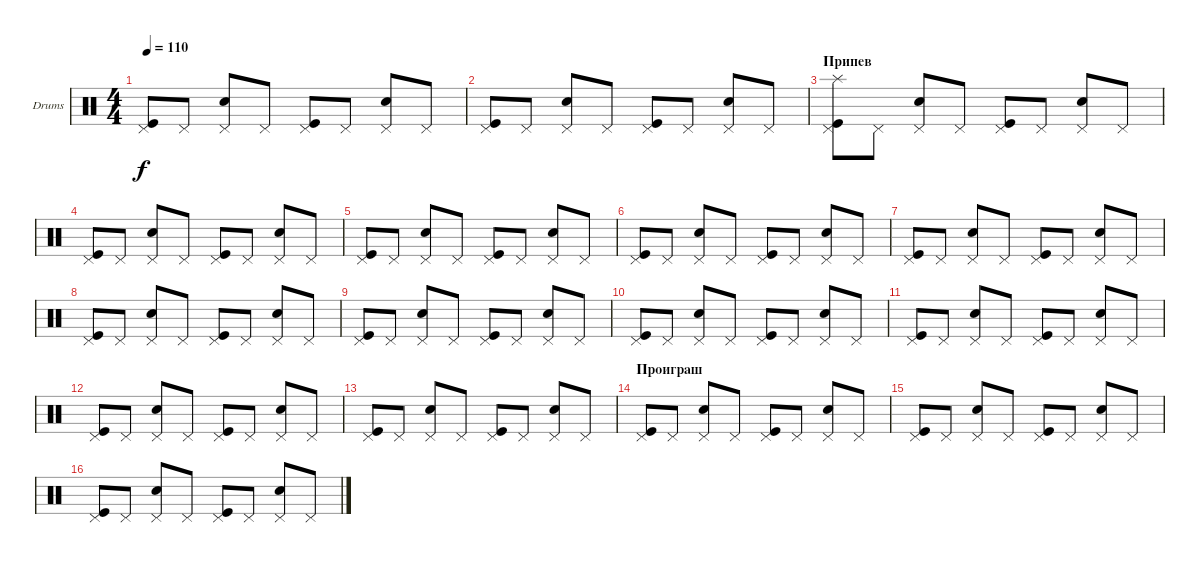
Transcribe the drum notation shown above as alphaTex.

\defaultSystemsLayout 4
\bracketExtendMode groupsimilarinstruments
\firstSystemTrackNameOrientation horizontal
\otherSystemsTrackNameOrientation horizontal
\track ("Drumkit" "Drums") {instrument percussion}
\staff {score}
\articulation defaults
\ts (4 4)
\tempo 110
\clef neutral
\ks c
("Pedal Hi-Hat (hit)" "Kick (hit)").8{dy f} "Pedal Hi-Hat (hit)".8 ("Snare (hit) 2" "Pedal Hi-Hat (hit)").8 "Pedal Hi-Hat (hit)".8 ("Pedal Hi-Hat (hit)" "Kick (hit)").8 "Pedal Hi-Hat (hit)".8 ("Snare (hit) 2" "Pedal Hi-Hat (hit)").8 "Pedal Hi-Hat (hit)".8 |
("Pedal Hi-Hat (hit)" "Kick (hit)").8 "Pedal Hi-Hat (hit)".8 ("Snare (hit) 2" "Pedal Hi-Hat (hit)").8 "Pedal Hi-Hat (hit)".8 ("Pedal Hi-Hat (hit)" "Kick (hit)").8 "Pedal Hi-Hat (hit)".8 ("Snare (hit) 2" "Pedal Hi-Hat (hit)").8 "Pedal Hi-Hat (hit)".8 |
\section ("" "Припев")
("Pedal Hi-Hat (hit)" "Kick (hit)" "Splash (hit)").8 "Pedal Hi-Hat (hit)".8 ("Snare (hit) 2" "Pedal Hi-Hat (hit)").8 "Pedal Hi-Hat (hit)".8 ("Pedal Hi-Hat (hit)" "Kick (hit)").8 "Pedal Hi-Hat (hit)".8 ("Snare (hit) 2" "Pedal Hi-Hat (hit)").8 "Pedal Hi-Hat (hit)".8 |
("Pedal Hi-Hat (hit)" "Kick (hit)").8 "Pedal Hi-Hat (hit)".8 ("Snare (hit) 2" "Pedal Hi-Hat (hit)").8 "Pedal Hi-Hat (hit)".8 ("Pedal Hi-Hat (hit)" "Kick (hit)").8 "Pedal Hi-Hat (hit)".8 ("Snare (hit) 2" "Pedal Hi-Hat (hit)").8 "Pedal Hi-Hat (hit)".8 |
("Pedal Hi-Hat (hit)" "Kick (hit)").8 "Pedal Hi-Hat (hit)".8 ("Snare (hit) 2" "Pedal Hi-Hat (hit)").8 "Pedal Hi-Hat (hit)".8 ("Pedal Hi-Hat (hit)" "Kick (hit)").8 "Pedal Hi-Hat (hit)".8 ("Snare (hit) 2" "Pedal Hi-Hat (hit)").8 "Pedal Hi-Hat (hit)".8 |
("Pedal Hi-Hat (hit)" "Kick (hit)").8 "Pedal Hi-Hat (hit)".8 ("Snare (hit) 2" "Pedal Hi-Hat (hit)").8 "Pedal Hi-Hat (hit)".8 ("Pedal Hi-Hat (hit)" "Kick (hit)").8 "Pedal Hi-Hat (hit)".8 ("Snare (hit) 2" "Pedal Hi-Hat (hit)").8 "Pedal Hi-Hat (hit)".8 |
("Pedal Hi-Hat (hit)" "Kick (hit)").8 "Pedal Hi-Hat (hit)".8 ("Snare (hit) 2" "Pedal Hi-Hat (hit)").8 "Pedal Hi-Hat (hit)".8 ("Pedal Hi-Hat (hit)" "Kick (hit)").8 "Pedal Hi-Hat (hit)".8 ("Snare (hit) 2" "Pedal Hi-Hat (hit)").8 "Pedal Hi-Hat (hit)".8 |
("Pedal Hi-Hat (hit)" "Kick (hit)").8 "Pedal Hi-Hat (hit)".8 ("Snare (hit) 2" "Pedal Hi-Hat (hit)").8 "Pedal Hi-Hat (hit)".8 ("Pedal Hi-Hat (hit)" "Kick (hit)").8 "Pedal Hi-Hat (hit)".8 ("Snare (hit) 2" "Pedal Hi-Hat (hit)").8 "Pedal Hi-Hat (hit)".8 |
("Pedal Hi-Hat (hit)" "Kick (hit)").8 "Pedal Hi-Hat (hit)".8 ("Snare (hit) 2" "Pedal Hi-Hat (hit)").8 "Pedal Hi-Hat (hit)".8 ("Pedal Hi-Hat (hit)" "Kick (hit)").8 "Pedal Hi-Hat (hit)".8 ("Snare (hit) 2" "Pedal Hi-Hat (hit)").8 "Pedal Hi-Hat (hit)".8 |
("Pedal Hi-Hat (hit)" "Kick (hit)").8 "Pedal Hi-Hat (hit)".8 ("Snare (hit) 2" "Pedal Hi-Hat (hit)").8 "Pedal Hi-Hat (hit)".8 ("Pedal Hi-Hat (hit)" "Kick (hit)").8 "Pedal Hi-Hat (hit)".8 ("Snare (hit) 2" "Pedal Hi-Hat (hit)").8 "Pedal Hi-Hat (hit)".8 |
("Pedal Hi-Hat (hit)" "Kick (hit)").8 "Pedal Hi-Hat (hit)".8 ("Snare (hit) 2" "Pedal Hi-Hat (hit)").8 "Pedal Hi-Hat (hit)".8 ("Pedal Hi-Hat (hit)" "Kick (hit)").8 "Pedal Hi-Hat (hit)".8 ("Snare (hit) 2" "Pedal Hi-Hat (hit)").8 "Pedal Hi-Hat (hit)".8 |
("Pedal Hi-Hat (hit)" "Kick (hit)").8 "Pedal Hi-Hat (hit)".8 ("Snare (hit) 2" "Pedal Hi-Hat (hit)").8 "Pedal Hi-Hat (hit)".8 ("Pedal Hi-Hat (hit)" "Kick (hit)").8 "Pedal Hi-Hat (hit)".8 ("Snare (hit) 2" "Pedal Hi-Hat (hit)").8 "Pedal Hi-Hat (hit)".8 |
("Pedal Hi-Hat (hit)" "Kick (hit)").8 "Pedal Hi-Hat (hit)".8 ("Snare (hit) 2" "Pedal Hi-Hat (hit)").8 "Pedal Hi-Hat (hit)".8 ("Pedal Hi-Hat (hit)" "Kick (hit)").8 "Pedal Hi-Hat (hit)".8 ("Snare (hit) 2" "Pedal Hi-Hat (hit)").8 "Pedal Hi-Hat (hit)".8 |
\section ("" "Проиграш")
("Pedal Hi-Hat (hit)" "Kick (hit)").8 "Pedal Hi-Hat (hit)".8 ("Snare (hit) 2" "Pedal Hi-Hat (hit)").8 "Pedal Hi-Hat (hit)".8 ("Pedal Hi-Hat (hit)" "Kick (hit)").8 "Pedal Hi-Hat (hit)".8 ("Snare (hit) 2" "Pedal Hi-Hat (hit)").8 "Pedal Hi-Hat (hit)".8 |
("Pedal Hi-Hat (hit)" "Kick (hit)").8 "Pedal Hi-Hat (hit)".8 ("Snare (hit) 2" "Pedal Hi-Hat (hit)").8 "Pedal Hi-Hat (hit)".8 ("Pedal Hi-Hat (hit)" "Kick (hit)").8 "Pedal Hi-Hat (hit)".8 ("Snare (hit) 2" "Pedal Hi-Hat (hit)").8 "Pedal Hi-Hat (hit)".8 |
("Pedal Hi-Hat (hit)" "Kick (hit)").8 "Pedal Hi-Hat (hit)".8 ("Snare (hit) 2" "Pedal Hi-Hat (hit)").8 "Pedal Hi-Hat (hit)".8 ("Pedal Hi-Hat (hit)" "Kick (hit)").8 "Pedal Hi-Hat (hit)".8 ("Snare (hit) 2" "Pedal Hi-Hat (hit)").8 "Pedal Hi-Hat (hit)".8
